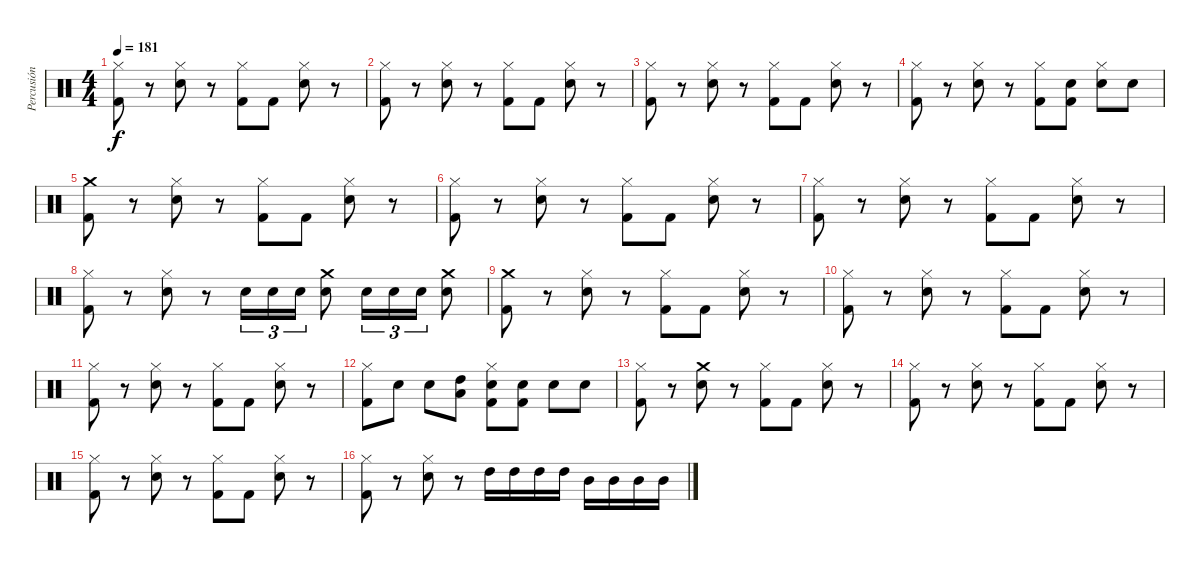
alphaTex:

\track ("Percusión" "Percusión") {instrument percussion}
\staff {score}
\articulation defaults
\ts (4 4)
\tempo 181
\clef neutral
\ks c
("Hi-Hat (closed)" "Kick (hit) 2").8{dy f} r.8 ("Hi-Hat (closed)" "Electric Snare (hit)").8 r.8 ("Hi-Hat (closed)" "Kick (hit) 2").8 "Kick (hit) 2".8 ("Hi-Hat (closed)" "Electric Snare (hit)").8 r.8 |
("Hi-Hat (closed)" "Kick (hit) 2").8 r.8 ("Hi-Hat (closed)" "Electric Snare (hit)").8 r.8 ("Hi-Hat (closed)" "Kick (hit) 2").8 "Kick (hit) 2".8 ("Hi-Hat (closed)" "Electric Snare (hit)").8 r.8 |
("Hi-Hat (closed)" "Kick (hit) 2").8 r.8 ("Hi-Hat (closed)" "Electric Snare (hit)").8 r.8 ("Hi-Hat (closed)" "Kick (hit) 2").8 "Kick (hit) 2".8 ("Hi-Hat (closed)" "Electric Snare (hit)").8 r.8 |
("Hi-Hat (closed)" "Kick (hit) 2").8 r.8 ("Hi-Hat (closed)" "Electric Snare (hit)").8 r.8 ("Hi-Hat (closed)" "Kick (hit) 2").8 ("Electric Snare (hit)" "Kick (hit) 2").8 ("Hi-Hat (closed)" "Electric Snare (hit)").8 "Electric Snare (hit)".8 |
("Crash medium (hit)" "Kick (hit) 2").8 r.8 ("Hi-Hat (closed)" "Electric Snare (hit)").8 r.8 ("Hi-Hat (closed)" "Kick (hit) 2").8 "Kick (hit) 2".8 ("Hi-Hat (closed)" "Electric Snare (hit)").8 r.8 |
("Hi-Hat (closed)" "Kick (hit) 2").8 r.8 ("Hi-Hat (closed)" "Electric Snare (hit)").8 r.8 ("Hi-Hat (closed)" "Kick (hit) 2").8 "Kick (hit) 2".8 ("Hi-Hat (closed)" "Electric Snare (hit)").8 r.8 |
("Hi-Hat (closed)" "Kick (hit) 2").8 r.8 ("Hi-Hat (closed)" "Electric Snare (hit)").8 r.8 ("Hi-Hat (closed)" "Kick (hit) 2").8 "Kick (hit) 2".8 ("Hi-Hat (closed)" "Electric Snare (hit)").8 r.8 |
("Hi-Hat (closed)" "Kick (hit) 2").8 r.8 ("Hi-Hat (closed)" "Electric Snare (hit)").8 r.8 "Electric Snare (hit)".16{tu (3 2)} "Electric Snare (hit)".16{tu (3 2)} "Electric Snare (hit)".16{tu (3 2)} ("Crash medium (hit)" "Electric Snare (hit)").8 "Electric Snare (hit)".16{tu (3 2)} "Electric Snare (hit)".16{tu (3 2)} "Electric Snare (hit)".16{tu (3 2)} ("Crash medium (hit)" "Electric Snare (hit)").8 |
("Crash medium (hit)" "Kick (hit) 2").8 r.8 ("Hi-Hat (closed)" "Electric Snare (hit)").8 r.8 ("Hi-Hat (closed)" "Kick (hit) 2").8 "Kick (hit) 2".8 ("Hi-Hat (closed)" "Electric Snare (hit)").8 r.8 |
("Hi-Hat (closed)" "Kick (hit) 2").8 r.8 ("Hi-Hat (closed)" "Electric Snare (hit)").8 r.8 ("Hi-Hat (closed)" "Kick (hit) 2").8 "Kick (hit) 2".8 ("Hi-Hat (closed)" "Electric Snare (hit)").8 r.8 |
("Hi-Hat (closed)" "Kick (hit) 2").8 r.8 ("Hi-Hat (closed)" "Electric Snare (hit)").8 r.8 ("Hi-Hat (closed)" "Kick (hit) 2").8 "Kick (hit) 2".8 ("Hi-Hat (closed)" "Electric Snare (hit)").8 r.8 |
("Hi-Hat (closed)" "Kick (hit) 2").8 "Electric Snare (hit)".8 "Electric Snare (hit)".8 ("High Tom (hit)" "Low Tom (hit)").8 ("Hi-Hat (closed)" "Electric Snare (hit)" "Kick (hit) 2").8 ("Electric Snare (hit)" "Kick (hit) 2").8 "Electric Snare (hit)".8 "Electric Snare (hit)".8 |
("Hi-Hat (closed)" "Kick (hit) 2").8 r.8 ("Crash medium (hit)" "Electric Snare (hit)").8 r.8 ("Hi-Hat (closed)" "Kick (hit) 2").8 "Kick (hit) 2".8 ("Hi-Hat (closed)" "Electric Snare (hit)").8 r.8 |
("Hi-Hat (closed)" "Kick (hit) 2").8 r.8 ("Hi-Hat (closed)" "Electric Snare (hit)").8 r.8 ("Hi-Hat (closed)" "Kick (hit) 2").8 "Kick (hit) 2".8 ("Hi-Hat (closed)" "Electric Snare (hit)").8 r.8 |
("Hi-Hat (closed)" "Kick (hit) 2").8 r.8 ("Hi-Hat (closed)" "Electric Snare (hit)").8 r.8 ("Hi-Hat (closed)" "Kick (hit) 2").8 "Kick (hit) 2".8 ("Hi-Hat (closed)" "Electric Snare (hit)").8 r.8 |
("Hi-Hat (closed)" "Kick (hit) 2").8 r.8 ("Hi-Hat (closed)" "Electric Snare (hit)").8 r.8 "High Tom (hit)".16 "High Tom (hit)".16 "High Tom (hit)".16 "High Tom (hit)".16 "Mid Tom (hit)".16 "Mid Tom (hit)".16 "Mid Tom (hit)".16 "Mid Tom (hit)".16
